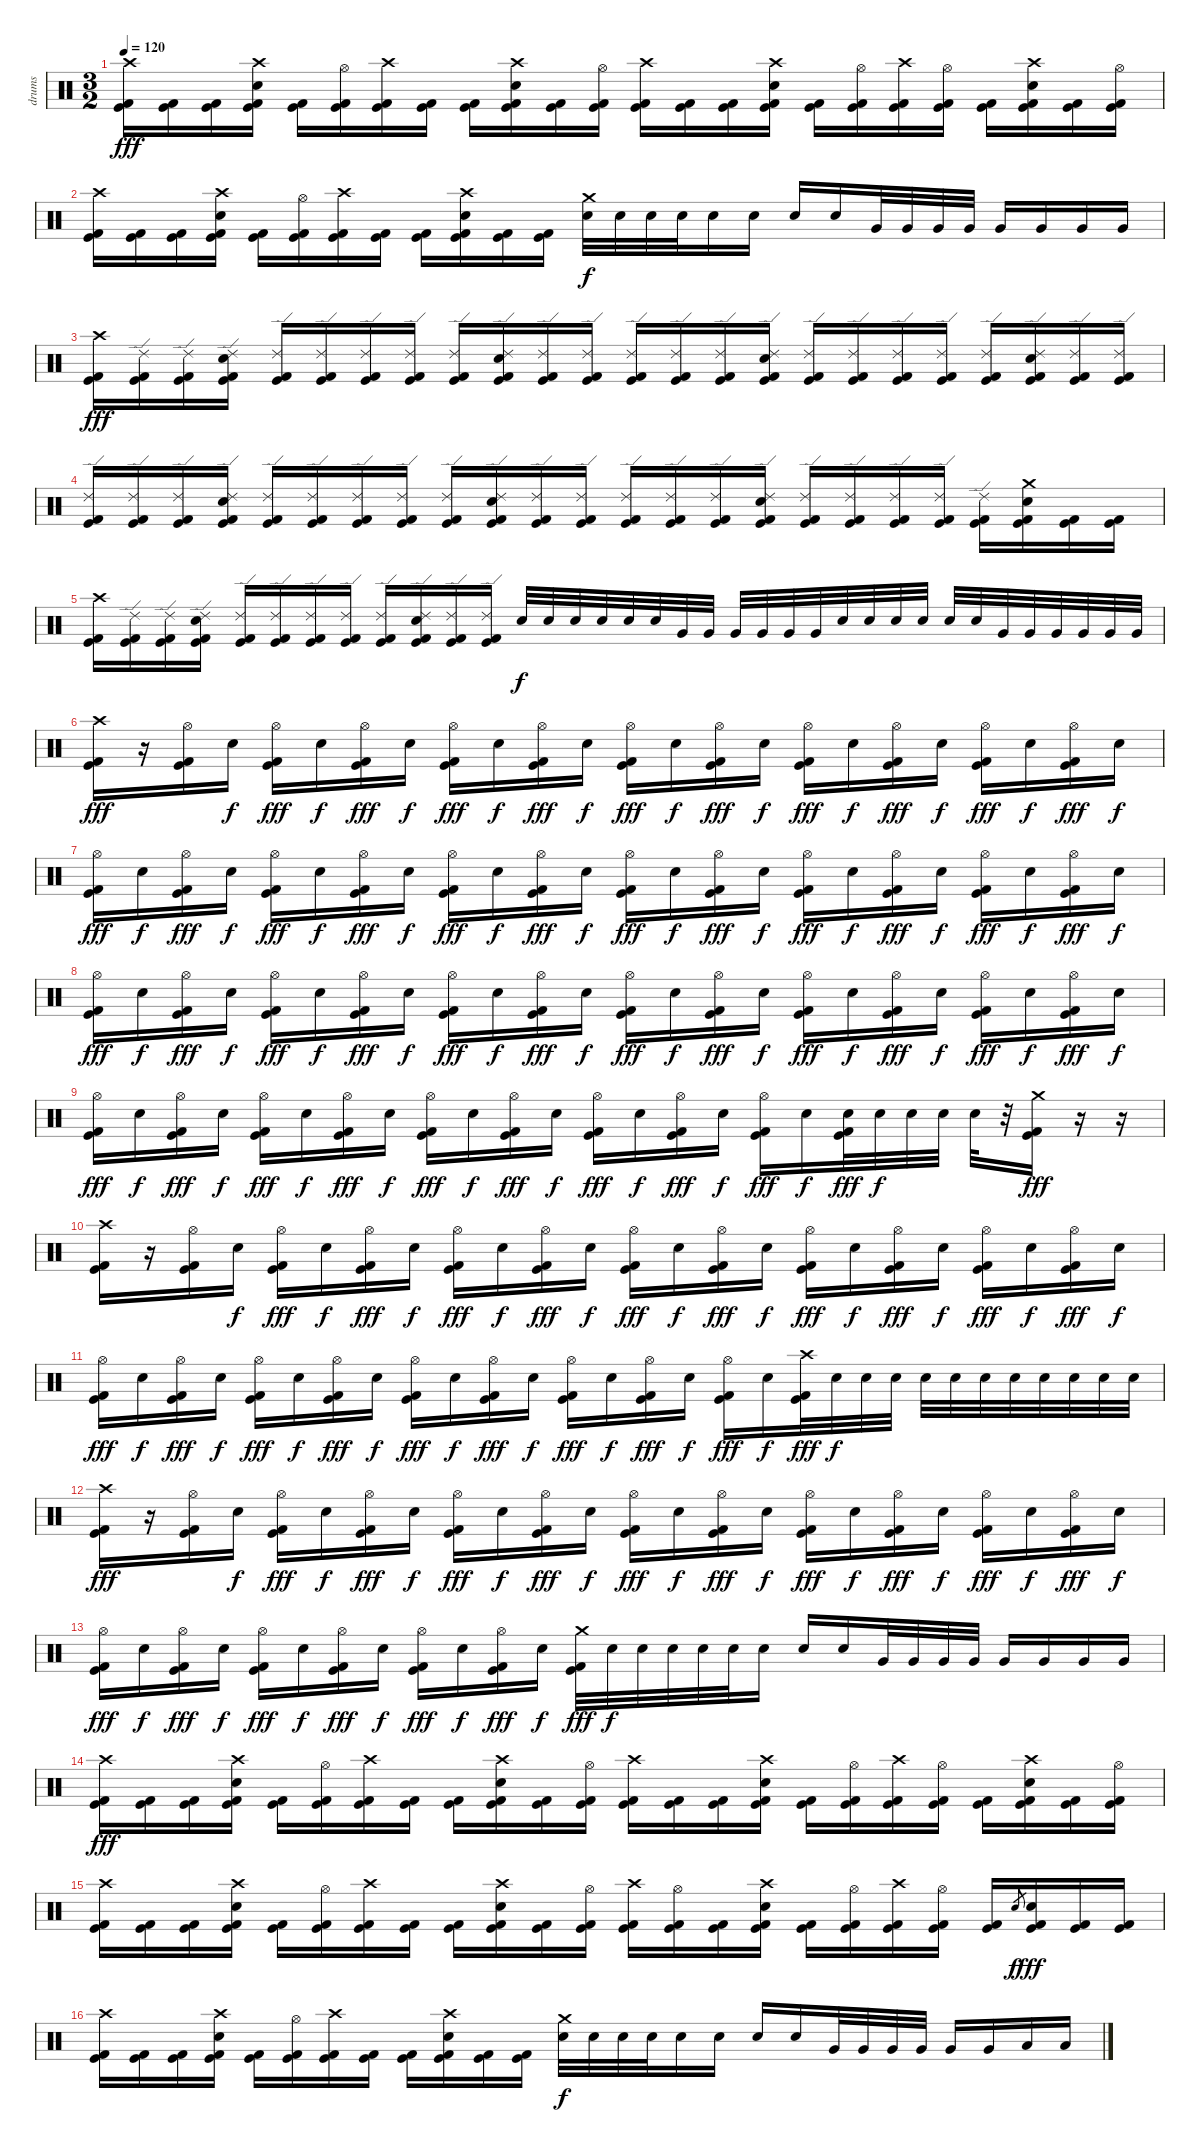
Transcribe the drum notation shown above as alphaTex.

\track ("drums" "drums") {instrument percussion}
\staff {score}
\articulation defaults
\ts (3 2)
\tempo 120
\clef neutral
\ks c
("Crash high (hit)" "Kick (hit)" "Kick (hit) 2").16{dy fff} ("Kick (hit)" "Kick (hit) 2").16 ("Kick (hit)" "Kick (hit) 2").16 ("Crash high (hit)" "Electric Snare (hit)" "Kick (hit)" "Kick (hit) 2").16 ("Kick (hit)" "Kick (hit) 2").16 ("Hi-Hat (open)" "Kick (hit)" "Kick (hit) 2").16 ("Crash high (hit)" "Kick (hit)" "Kick (hit) 2").16 ("Kick (hit)" "Kick (hit) 2").16 ("Kick (hit)" "Kick (hit) 2").16 ("Crash high (hit)" "Electric Snare (hit)" "Kick (hit)" "Kick (hit) 2").16 ("Kick (hit)" "Kick (hit) 2").16 ("Hi-Hat (open)" "Kick (hit)" "Kick (hit) 2").16 ("Crash high (hit)" "Kick (hit)" "Kick (hit) 2").16 ("Kick (hit)" "Kick (hit) 2").16 ("Kick (hit)" "Kick (hit) 2").16 ("Crash high (hit)" "Electric Snare (hit)" "Kick (hit)" "Kick (hit) 2").16 ("Kick (hit)" "Kick (hit) 2").16 ("Hi-Hat (open)" "Kick (hit)" "Kick (hit) 2").16 ("Crash high (hit)" "Kick (hit)" "Kick (hit) 2").16 ("Hi-Hat (open)" "Kick (hit)" "Kick (hit) 2").16 ("Kick (hit)" "Kick (hit) 2").16 ("Crash high (hit)" "Electric Snare (hit)" "Kick (hit)" "Kick (hit) 2").16 ("Kick (hit)" "Kick (hit) 2").16 ("Hi-Hat (open)" "Kick (hit)" "Kick (hit) 2").16 |
("Crash high (hit)" "Kick (hit)" "Kick (hit) 2").16 ("Kick (hit)" "Kick (hit) 2").16 ("Kick (hit)" "Kick (hit) 2").16 ("Crash high (hit)" "Electric Snare (hit)" "Kick (hit)" "Kick (hit) 2").16 ("Kick (hit)" "Kick (hit) 2").16 ("Hi-Hat (open)" "Kick (hit)" "Kick (hit) 2").16 ("Crash high (hit)" "Kick (hit)" "Kick (hit) 2").16 ("Kick (hit)" "Kick (hit) 2").16 ("Kick (hit)" "Kick (hit) 2").16 ("Crash high (hit)" "Electric Snare (hit)" "Kick (hit)" "Kick (hit) 2").16 ("Kick (hit)" "Kick (hit) 2").16 ("Kick (hit)" "Kick (hit) 2").16 ("Crash medium (hit)" "Electric Snare (hit)").32{dy f} "Electric Snare (hit)".32 "Electric Snare (hit)".32 "Electric Snare (hit)".32 "Electric Snare (hit)".16 "Electric Snare (hit)".16 "Electric Snare (hit)".16 "Electric Snare (hit)".16 "Very Low Tom (hit)".32 "Very Low Tom (hit)".32 "Very Low Tom (hit)".32 "Very Low Tom (hit)".32 "Very Low Tom (hit)".16 "Very Low Tom (hit)".16 "Very Low Tom (hit)".16 "Very Low Tom (hit)".16 |
("Crash high (hit)" "Kick (hit)" "Kick (hit) 2").16{dy fff} ("Ride (edge) 2" "Kick (hit)" "Kick (hit) 2").16 ("Ride (edge) 2" "Kick (hit)" "Kick (hit) 2").16 ("Ride (edge) 2" "Electric Snare (hit)" "Kick (hit)" "Kick (hit) 2").16 ("Ride (edge) 2" "Kick (hit)" "Kick (hit) 2").16 ("Ride (edge) 2" "Kick (hit)" "Kick (hit) 2").16 ("Ride (edge) 2" "Kick (hit)" "Kick (hit) 2").16 ("Ride (edge) 2" "Kick (hit)" "Kick (hit) 2").16 ("Ride (edge) 2" "Kick (hit)" "Kick (hit) 2").16 ("Ride (edge) 2" "Electric Snare (hit)" "Kick (hit)" "Kick (hit) 2").16 ("Ride (edge) 2" "Kick (hit)" "Kick (hit) 2").16 ("Ride (edge) 2" "Kick (hit)" "Kick (hit) 2").16 ("Ride (edge) 2" "Kick (hit)" "Kick (hit) 2").16 ("Ride (edge) 2" "Kick (hit)" "Kick (hit) 2").16 ("Ride (edge) 2" "Kick (hit)" "Kick (hit) 2").16 ("Ride (edge) 2" "Electric Snare (hit)" "Kick (hit)" "Kick (hit) 2").16 ("Ride (edge) 2" "Kick (hit)" "Kick (hit) 2").16 ("Ride (edge) 2" "Kick (hit)" "Kick (hit) 2").16 ("Ride (edge) 2" "Kick (hit)" "Kick (hit) 2").16 ("Ride (edge) 2" "Kick (hit)" "Kick (hit) 2").16 ("Ride (edge) 2" "Kick (hit)" "Kick (hit) 2").16 ("Ride (edge) 2" "Electric Snare (hit)" "Kick (hit)" "Kick (hit) 2").16 ("Ride (edge) 2" "Kick (hit)" "Kick (hit) 2").16 ("Ride (edge) 2" "Kick (hit)" "Kick (hit) 2").16 |
("Ride (edge) 2" "Kick (hit)" "Kick (hit) 2").16 ("Ride (edge) 2" "Kick (hit)" "Kick (hit) 2").16 ("Ride (edge) 2" "Kick (hit)" "Kick (hit) 2").16 ("Ride (edge) 2" "Electric Snare (hit)" "Kick (hit)" "Kick (hit) 2").16 ("Ride (edge) 2" "Kick (hit)" "Kick (hit) 2").16 ("Ride (edge) 2" "Kick (hit)" "Kick (hit) 2").16 ("Ride (edge) 2" "Kick (hit)" "Kick (hit) 2").16 ("Ride (edge) 2" "Kick (hit)" "Kick (hit) 2").16 ("Ride (edge) 2" "Kick (hit)" "Kick (hit) 2").16 ("Ride (edge) 2" "Electric Snare (hit)" "Kick (hit)" "Kick (hit) 2").16 ("Ride (edge) 2" "Kick (hit)" "Kick (hit) 2").16 ("Ride (edge) 2" "Kick (hit)" "Kick (hit) 2").16 ("Ride (edge) 2" "Kick (hit)" "Kick (hit) 2").16 ("Ride (edge) 2" "Kick (hit)" "Kick (hit) 2").16 ("Ride (edge) 2" "Kick (hit)" "Kick (hit) 2").16 ("Ride (edge) 2" "Electric Snare (hit)" "Kick (hit)" "Kick (hit) 2").16 ("Ride (edge) 2" "Kick (hit)" "Kick (hit) 2").16 ("Ride (edge) 2" "Kick (hit)" "Kick (hit) 2").16 ("Ride (edge) 2" "Kick (hit)" "Kick (hit) 2").16 ("Ride (edge) 2" "Kick (hit)" "Kick (hit) 2").16 ("Ride (edge) 2" "Kick (hit)" "Kick (hit) 2").16 ("Crash medium (hit)" "Electric Snare (hit)" "Kick (hit)" "Kick (hit) 2").16 ("Kick (hit)" "Kick (hit) 2").16 ("Kick (hit)" "Kick (hit) 2").16 |
("Crash high (hit)" "Kick (hit)" "Kick (hit) 2").16 ("Ride (edge) 2" "Kick (hit)" "Kick (hit) 2").16 ("Ride (edge) 2" "Kick (hit)" "Kick (hit) 2").16 ("Ride (edge) 2" "Electric Snare (hit)" "Kick (hit)" "Kick (hit) 2").16 ("Ride (edge) 2" "Kick (hit)" "Kick (hit) 2").16 ("Ride (edge) 2" "Kick (hit)" "Kick (hit) 2").16 ("Ride (edge) 2" "Kick (hit)" "Kick (hit) 2").16 ("Ride (edge) 2" "Kick (hit)" "Kick (hit) 2").16 ("Ride (edge) 2" "Kick (hit)" "Kick (hit) 2").16 ("Ride (edge) 2" "Electric Snare (hit)" "Kick (hit)" "Kick (hit) 2").16 ("Ride (edge) 2" "Kick (hit)" "Kick (hit) 2").16 ("Ride (edge) 2" "Kick (hit)" "Kick (hit) 2").16 "Electric Snare (hit)".32{dy f} "Electric Snare (hit)".32 "Electric Snare (hit)".32 "Electric Snare (hit)".32 "Electric Snare (hit)".32 "Electric Snare (hit)".32 "Very Low Tom (hit)".32 "Very Low Tom (hit)".32 "Very Low Tom (hit)".32 "Very Low Tom (hit)".32 "Very Low Tom (hit)".32 "Very Low Tom (hit)".32 "Electric Snare (hit)".32 "Electric Snare (hit)".32 "Electric Snare (hit)".32 "Electric Snare (hit)".32 "Electric Snare (hit)".32 "Electric Snare (hit)".32 "Very Low Tom (hit)".32 "Very Low Tom (hit)".32 "Very Low Tom (hit)".32 "Very Low Tom (hit)".32 "Very Low Tom (hit)".32 "Very Low Tom (hit)".32 |
("Crash high (hit)" "Kick (hit)" "Kick (hit) 2").16{dy fff} r.16 ("Hi-Hat (open)" "Kick (hit)" "Kick (hit) 2").16 "Electric Snare (hit)".16{dy f} ("Hi-Hat (open)" "Kick (hit)" "Kick (hit) 2").16{dy fff} "Electric Snare (hit)".16{dy f} ("Hi-Hat (open)" "Kick (hit)" "Kick (hit) 2").16{dy fff} "Electric Snare (hit)".16{dy f} ("Hi-Hat (open)" "Kick (hit)" "Kick (hit) 2").16{dy fff} "Electric Snare (hit)".16{dy f} ("Hi-Hat (open)" "Kick (hit)" "Kick (hit) 2").16{dy fff} "Electric Snare (hit)".16{dy f} ("Hi-Hat (open)" "Kick (hit)" "Kick (hit) 2").16{dy fff} "Electric Snare (hit)".16{dy f} ("Hi-Hat (open)" "Kick (hit)" "Kick (hit) 2").16{dy fff} "Electric Snare (hit)".16{dy f} ("Hi-Hat (open)" "Kick (hit)" "Kick (hit) 2").16{dy fff} "Electric Snare (hit)".16{dy f} ("Hi-Hat (open)" "Kick (hit)" "Kick (hit) 2").16{dy fff} "Electric Snare (hit)".16{dy f} ("Hi-Hat (open)" "Kick (hit)" "Kick (hit) 2").16{dy fff} "Electric Snare (hit)".16{dy f} ("Hi-Hat (open)" "Kick (hit)" "Kick (hit) 2").16{dy fff} "Electric Snare (hit)".16{dy f} |
("Hi-Hat (open)" "Kick (hit)" "Kick (hit) 2").16{dy fff} "Electric Snare (hit)".16{dy f} ("Hi-Hat (open)" "Kick (hit)" "Kick (hit) 2").16{dy fff} "Electric Snare (hit)".16{dy f} ("Hi-Hat (open)" "Kick (hit)" "Kick (hit) 2").16{dy fff} "Electric Snare (hit)".16{dy f} ("Hi-Hat (open)" "Kick (hit)" "Kick (hit) 2").16{dy fff} "Electric Snare (hit)".16{dy f} ("Hi-Hat (open)" "Kick (hit)" "Kick (hit) 2").16{dy fff} "Electric Snare (hit)".16{dy f} ("Hi-Hat (open)" "Kick (hit)" "Kick (hit) 2").16{dy fff} "Electric Snare (hit)".16{dy f} ("Hi-Hat (open)" "Kick (hit)" "Kick (hit) 2").16{dy fff} "Electric Snare (hit)".16{dy f} ("Hi-Hat (open)" "Kick (hit)" "Kick (hit) 2").16{dy fff} "Electric Snare (hit)".16{dy f} ("Hi-Hat (open)" "Kick (hit)" "Kick (hit) 2").16{dy fff} "Electric Snare (hit)".16{dy f} ("Hi-Hat (open)" "Kick (hit)" "Kick (hit) 2").16{dy fff} "Electric Snare (hit)".16{dy f} ("Hi-Hat (open)" "Kick (hit)" "Kick (hit) 2").16{dy fff} "Electric Snare (hit)".16{dy f} ("Hi-Hat (open)" "Kick (hit)" "Kick (hit) 2").16{dy fff} "Electric Snare (hit)".16{dy f} |
("Hi-Hat (open)" "Kick (hit)" "Kick (hit) 2").16{dy fff} "Electric Snare (hit)".16{dy f} ("Hi-Hat (open)" "Kick (hit)" "Kick (hit) 2").16{dy fff} "Electric Snare (hit)".16{dy f} ("Hi-Hat (open)" "Kick (hit)" "Kick (hit) 2").16{dy fff} "Electric Snare (hit)".16{dy f} ("Hi-Hat (open)" "Kick (hit)" "Kick (hit) 2").16{dy fff} "Electric Snare (hit)".16{dy f} ("Hi-Hat (open)" "Kick (hit)" "Kick (hit) 2").16{dy fff} "Electric Snare (hit)".16{dy f} ("Hi-Hat (open)" "Kick (hit)" "Kick (hit) 2").16{dy fff} "Electric Snare (hit)".16{dy f} ("Hi-Hat (open)" "Kick (hit)" "Kick (hit) 2").16{dy fff} "Electric Snare (hit)".16{dy f} ("Hi-Hat (open)" "Kick (hit)" "Kick (hit) 2").16{dy fff} "Electric Snare (hit)".16{dy f} ("Hi-Hat (open)" "Kick (hit)" "Kick (hit) 2").16{dy fff} "Electric Snare (hit)".16{dy f} ("Hi-Hat (open)" "Kick (hit)" "Kick (hit) 2").16{dy fff} "Electric Snare (hit)".16{dy f} ("Hi-Hat (open)" "Kick (hit)" "Kick (hit) 2").16{dy fff} "Electric Snare (hit)".16{dy f} ("Hi-Hat (open)" "Kick (hit)" "Kick (hit) 2").16{dy fff} "Electric Snare (hit)".16{dy f} |
("Hi-Hat (open)" "Kick (hit)" "Kick (hit) 2").16{dy fff} "Electric Snare (hit)".16{dy f} ("Hi-Hat (open)" "Kick (hit)" "Kick (hit) 2").16{dy fff} "Electric Snare (hit)".16{dy f} ("Hi-Hat (open)" "Kick (hit)" "Kick (hit) 2").16{dy fff} "Electric Snare (hit)".16{dy f} ("Hi-Hat (open)" "Kick (hit)" "Kick (hit) 2").16{dy fff} "Electric Snare (hit)".16{dy f} ("Hi-Hat (open)" "Kick (hit)" "Kick (hit) 2").16{dy fff} "Electric Snare (hit)".16{dy f} ("Hi-Hat (open)" "Kick (hit)" "Kick (hit) 2").16{dy fff} "Electric Snare (hit)".16{dy f} ("Hi-Hat (open)" "Kick (hit)" "Kick (hit) 2").16{dy fff} "Electric Snare (hit)".16{dy f} ("Hi-Hat (open)" "Kick (hit)" "Kick (hit) 2").16{dy fff} "Electric Snare (hit)".16{dy f} ("Hi-Hat (open)" "Kick (hit)" "Kick (hit) 2").16{dy fff} "Electric Snare (hit)".16{dy f} ("Electric Snare (hit)" "Kick (hit)" "Kick (hit) 2").32{dy fff} "Electric Snare (hit)".32{dy f} "Electric Snare (hit)".32 "Electric Snare (hit)".32 "Electric Snare (hit)".32 r.32 ("Crash medium (hit)" "Kick (hit)" "Kick (hit) 2").16{dy fff} r.16 r.16 |
("Crash high (hit)" "Kick (hit)" "Kick (hit) 2").16 r.16 ("Hi-Hat (open)" "Kick (hit)" "Kick (hit) 2").16 "Electric Snare (hit)".16{dy f} ("Hi-Hat (open)" "Kick (hit)" "Kick (hit) 2").16{dy fff} "Electric Snare (hit)".16{dy f} ("Hi-Hat (open)" "Kick (hit)" "Kick (hit) 2").16{dy fff} "Electric Snare (hit)".16{dy f} ("Hi-Hat (open)" "Kick (hit)" "Kick (hit) 2").16{dy fff} "Electric Snare (hit)".16{dy f} ("Hi-Hat (open)" "Kick (hit)" "Kick (hit) 2").16{dy fff} "Electric Snare (hit)".16{dy f} ("Hi-Hat (open)" "Kick (hit)" "Kick (hit) 2").16{dy fff} "Electric Snare (hit)".16{dy f} ("Hi-Hat (open)" "Kick (hit)" "Kick (hit) 2").16{dy fff} "Electric Snare (hit)".16{dy f} ("Hi-Hat (open)" "Kick (hit)" "Kick (hit) 2").16{dy fff} "Electric Snare (hit)".16{dy f} ("Hi-Hat (open)" "Kick (hit)" "Kick (hit) 2").16{dy fff} "Electric Snare (hit)".16{dy f} ("Hi-Hat (open)" "Kick (hit)" "Kick (hit) 2").16{dy fff} "Electric Snare (hit)".16{dy f} ("Hi-Hat (open)" "Kick (hit)" "Kick (hit) 2").16{dy fff} "Electric Snare (hit)".16{dy f} |
("Hi-Hat (open)" "Kick (hit)" "Kick (hit) 2").16{dy fff} "Electric Snare (hit)".16{dy f} ("Hi-Hat (open)" "Kick (hit)" "Kick (hit) 2").16{dy fff} "Electric Snare (hit)".16{dy f} ("Hi-Hat (open)" "Kick (hit)" "Kick (hit) 2").16{dy fff} "Electric Snare (hit)".16{dy f} ("Hi-Hat (open)" "Kick (hit)" "Kick (hit) 2").16{dy fff} "Electric Snare (hit)".16{dy f} ("Hi-Hat (open)" "Kick (hit)" "Kick (hit) 2").16{dy fff} "Electric Snare (hit)".16{dy f} ("Hi-Hat (open)" "Kick (hit)" "Kick (hit) 2").16{dy fff} "Electric Snare (hit)".16{dy f} ("Hi-Hat (open)" "Kick (hit)" "Kick (hit) 2").16{dy fff} "Electric Snare (hit)".16{dy f} ("Hi-Hat (open)" "Kick (hit)" "Kick (hit) 2").16{dy fff} "Electric Snare (hit)".16{dy f} ("Hi-Hat (open)" "Kick (hit)" "Kick (hit) 2").16{dy fff} "Electric Snare (hit)".16{dy f} ("Crash high (hit)" "Kick (hit)" "Kick (hit) 2").32{dy fff} "Electric Snare (hit)".32{dy f} "Electric Snare (hit)".32 "Electric Snare (hit)".32 "Electric Snare (hit)".32 "Electric Snare (hit)".32 "Electric Snare (hit)".32 "Electric Snare (hit)".32 "Electric Snare (hit)".32 "Electric Snare (hit)".32 "Electric Snare (hit)".32 "Electric Snare (hit)".32 |
("Crash high (hit)" "Kick (hit)" "Kick (hit) 2").16{dy fff} r.16 ("Hi-Hat (open)" "Kick (hit)" "Kick (hit) 2").16 "Electric Snare (hit)".16{dy f} ("Hi-Hat (open)" "Kick (hit)" "Kick (hit) 2").16{dy fff} "Electric Snare (hit)".16{dy f} ("Hi-Hat (open)" "Kick (hit)" "Kick (hit) 2").16{dy fff} "Electric Snare (hit)".16{dy f} ("Hi-Hat (open)" "Kick (hit)" "Kick (hit) 2").16{dy fff} "Electric Snare (hit)".16{dy f} ("Hi-Hat (open)" "Kick (hit)" "Kick (hit) 2").16{dy fff} "Electric Snare (hit)".16{dy f} ("Hi-Hat (open)" "Kick (hit)" "Kick (hit) 2").16{dy fff} "Electric Snare (hit)".16{dy f} ("Hi-Hat (open)" "Kick (hit)" "Kick (hit) 2").16{dy fff} "Electric Snare (hit)".16{dy f} ("Hi-Hat (open)" "Kick (hit)" "Kick (hit) 2").16{dy fff} "Electric Snare (hit)".16{dy f} ("Hi-Hat (open)" "Kick (hit)" "Kick (hit) 2").16{dy fff} "Electric Snare (hit)".16{dy f} ("Hi-Hat (open)" "Kick (hit)" "Kick (hit) 2").16{dy fff} "Electric Snare (hit)".16{dy f} ("Hi-Hat (open)" "Kick (hit)" "Kick (hit) 2").16{dy fff} "Electric Snare (hit)".16{dy f} |
("Hi-Hat (open)" "Kick (hit)" "Kick (hit) 2").16{dy fff} "Electric Snare (hit)".16{dy f} ("Hi-Hat (open)" "Kick (hit)" "Kick (hit) 2").16{dy fff} "Electric Snare (hit)".16{dy f} ("Hi-Hat (open)" "Kick (hit)" "Kick (hit) 2").16{dy fff} "Electric Snare (hit)".16{dy f} ("Hi-Hat (open)" "Kick (hit)" "Kick (hit) 2").16{dy fff} "Electric Snare (hit)".16{dy f} ("Hi-Hat (open)" "Kick (hit)" "Kick (hit) 2").16{dy fff} "Electric Snare (hit)".16{dy f} ("Hi-Hat (open)" "Kick (hit)" "Kick (hit) 2").16{dy fff} "Electric Snare (hit)".16{dy f} ("Crash medium (hit)" "Kick (hit)" "Kick (hit) 2").32{dy fff} "Electric Snare (hit)".32{dy f} "Electric Snare (hit)".32 "Electric Snare (hit)".32 "Electric Snare (hit)".32 "Electric Snare (hit)".32 "Electric Snare (hit)".16 "Electric Snare (hit)".16 "Electric Snare (hit)".16 "Very Low Tom (hit)".32 "Very Low Tom (hit)".32 "Very Low Tom (hit)".32 "Very Low Tom (hit)".32 "Very Low Tom (hit)".16 "Very Low Tom (hit)".16 "Very Low Tom (hit)".16 "Very Low Tom (hit)".16 |
("Crash high (hit)" "Kick (hit)" "Kick (hit) 2").16{dy fff} ("Kick (hit)" "Kick (hit) 2").16 ("Kick (hit)" "Kick (hit) 2").16 ("Crash high (hit)" "Electric Snare (hit)" "Kick (hit)" "Kick (hit) 2").16 ("Kick (hit)" "Kick (hit) 2").16 ("Hi-Hat (open)" "Kick (hit)" "Kick (hit) 2").16 ("Crash high (hit)" "Kick (hit)" "Kick (hit) 2").16 ("Kick (hit)" "Kick (hit) 2").16 ("Kick (hit)" "Kick (hit) 2").16 ("Crash high (hit)" "Electric Snare (hit)" "Kick (hit)" "Kick (hit) 2").16 ("Kick (hit)" "Kick (hit) 2").16 ("Hi-Hat (open)" "Kick (hit)" "Kick (hit) 2").16 ("Crash high (hit)" "Kick (hit)" "Kick (hit) 2").16 ("Kick (hit)" "Kick (hit) 2").16 ("Kick (hit)" "Kick (hit) 2").16 ("Crash high (hit)" "Electric Snare (hit)" "Kick (hit)" "Kick (hit) 2").16 ("Kick (hit)" "Kick (hit) 2").16 ("Hi-Hat (open)" "Kick (hit)" "Kick (hit) 2").16 ("Crash high (hit)" "Kick (hit)" "Kick (hit) 2").16 ("Hi-Hat (open)" "Kick (hit)" "Kick (hit) 2").16 ("Kick (hit)" "Kick (hit) 2").16 ("Crash high (hit)" "Electric Snare (hit)" "Kick (hit)" "Kick (hit) 2").16 ("Kick (hit)" "Kick (hit) 2").16 ("Hi-Hat (open)" "Kick (hit)" "Kick (hit) 2").16 |
("Crash high (hit)" "Kick (hit)" "Kick (hit) 2").16 ("Kick (hit)" "Kick (hit) 2").16 ("Kick (hit)" "Kick (hit) 2").16 ("Crash high (hit)" "Electric Snare (hit)" "Kick (hit)" "Kick (hit) 2").16 ("Kick (hit)" "Kick (hit) 2").16 ("Hi-Hat (open)" "Kick (hit)" "Kick (hit) 2").16 ("Crash high (hit)" "Kick (hit)" "Kick (hit) 2").16 ("Kick (hit)" "Kick (hit) 2").16 ("Kick (hit)" "Kick (hit) 2").16 ("Crash high (hit)" "Electric Snare (hit)" "Kick (hit)" "Kick (hit) 2").16 ("Kick (hit)" "Kick (hit) 2").16 ("Hi-Hat (open)" "Kick (hit)" "Kick (hit) 2").16 ("Crash high (hit)" "Kick (hit)" "Kick (hit) 2").16 ("Hi-Hat (open)" "Kick (hit)" "Kick (hit) 2").16 ("Kick (hit)" "Kick (hit) 2").16 ("Crash high (hit)" "Electric Snare (hit)" "Kick (hit)" "Kick (hit) 2").16 ("Kick (hit)" "Kick (hit) 2").16 ("Hi-Hat (open)" "Kick (hit)" "Kick (hit) 2").16 ("Crash high (hit)" "Kick (hit)" "Kick (hit) 2").16 ("Hi-Hat (open)" "Kick (hit)" "Kick (hit) 2").16 ("Kick (hit)" "Kick (hit) 2").16 "Electric Snare (hit)".8{gr dy f} ("Electric Snare (hit)" "Kick (hit)" "Kick (hit) 2").16{dy fff} ("Kick (hit)" "Kick (hit) 2").16 ("Kick (hit)" "Kick (hit) 2").16 |
("Crash high (hit)" "Kick (hit)" "Kick (hit) 2").16 ("Kick (hit)" "Kick (hit) 2").16 ("Kick (hit)" "Kick (hit) 2").16 ("Crash high (hit)" "Electric Snare (hit)" "Kick (hit)" "Kick (hit) 2").16 ("Kick (hit)" "Kick (hit) 2").16 ("Hi-Hat (open)" "Kick (hit)" "Kick (hit) 2").16 ("Crash high (hit)" "Kick (hit)" "Kick (hit) 2").16 ("Kick (hit)" "Kick (hit) 2").16 ("Kick (hit)" "Kick (hit) 2").16 ("Crash high (hit)" "Electric Snare (hit)" "Kick (hit)" "Kick (hit) 2").16 ("Kick (hit)" "Kick (hit) 2").16 ("Kick (hit)" "Kick (hit) 2").16 ("Crash medium (hit)" "Electric Snare (hit)").32{dy f} "Electric Snare (hit)".32 "Electric Snare (hit)".32 "Electric Snare (hit)".32 "Electric Snare (hit)".16 "Electric Snare (hit)".16 "Electric Snare (hit)".16 "Electric Snare (hit)".16 "Very Low Tom (hit)".32 "Very Low Tom (hit)".32 "Very Low Tom (hit)".32 "Very Low Tom (hit)".32 "Very Low Tom (hit)".16 "Very Low Tom (hit)".16 "Low Floor Tom (hit)".16 "Low Floor Tom (hit)".16
